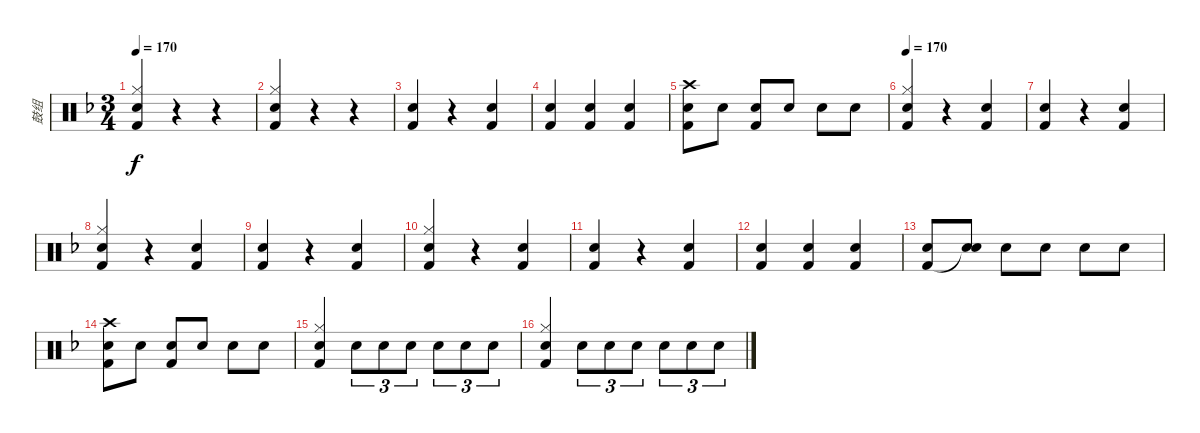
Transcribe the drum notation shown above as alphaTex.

\track ("鼓组" "鼓组") {instrument percussion}
\staff {score}
\articulation defaults
\ts (3 4)
\tempo 170
\clef neutral
\ks f
("Snare (hit) 2" "Hi-Hat (closed)" "Kick (hit) 2").4{dy f} r.4 r.4 |
("Snare (hit) 2" "Hi-Hat (closed)" "Kick (hit) 2").4 r.4 r.4 |
("Snare (hit) 2" "Kick (hit) 2").4 r.4 ("Snare (hit) 2" "Kick (hit) 2").4 |
("Snare (hit) 2" "Kick (hit) 2").4 ("Snare (hit) 2" "Kick (hit) 2").4 ("Snare (hit) 2" "Kick (hit) 2").4 |
("Snare (hit) 2" "Crash high (hit)" "Kick (hit) 2").8 "Snare (hit) 2".8 ("Snare (hit) 2" "Kick (hit) 2").8 "Snare (hit) 2".8 "Snare (hit) 2".8 "Snare (hit) 2".8 |
\tempo 170
("Snare (hit) 2" "Hi-Hat (closed)" "Kick (hit) 2").4 r.4 ("Snare (hit) 2" "Kick (hit) 2").4 |
("Snare (hit) 2" "Kick (hit) 2").4 r.4 ("Snare (hit) 2" "Kick (hit) 2").4 |
("Snare (hit) 2" "Hi-Hat (closed)" "Kick (hit) 2").4 r.4 ("Snare (hit) 2" "Kick (hit) 2").4 |
("Snare (hit) 2" "Kick (hit) 2").4 r.4 ("Snare (hit) 2" "Kick (hit) 2").4 |
("Snare (hit) 2" "Hi-Hat (closed)" "Kick (hit) 2").4 r.4 ("Snare (hit) 2" "Kick (hit) 2").4 |
("Snare (hit) 2" "Kick (hit) 2").4 r.4 ("Snare (hit) 2" "Kick (hit) 2").4 |
("Snare (hit) 2" "Kick (hit) 2").4 ("Snare (hit) 2" "Kick (hit) 2").4 ("Snare (hit) 2" "Kick (hit) 2").4 |
("Snare (hit) 2" "Kick (hit) 2").8 ("Snare (hit) 2" "Snare (hit)"{t}).8 "Snare (hit) 2".8 "Snare (hit) 2".8 "Snare (hit) 2".8 "Snare (hit) 2".8 |
("Snare (hit) 2" "Crash high (hit)" "Kick (hit) 2").8 "Snare (hit) 2".8 ("Snare (hit) 2" "Kick (hit) 2").8 "Snare (hit) 2".8 "Snare (hit) 2".8 "Snare (hit) 2".8 |
("Snare (hit) 2" "Hi-Hat (closed)" "Kick (hit) 2").4 "Snare (hit) 2".8{tu (3 2)} "Snare (hit) 2".8{tu (3 2)} "Snare (hit) 2".8{tu (3 2)} "Snare (hit) 2".8{tu (3 2)} "Snare (hit) 2".8{tu (3 2)} "Snare (hit) 2".8{tu (3 2)} |
("Snare (hit) 2" "Hi-Hat (closed)" "Kick (hit) 2").4 "Snare (hit) 2".8{tu (3 2)} "Snare (hit) 2".8{tu (3 2)} "Snare (hit) 2".8{tu (3 2)} "Snare (hit) 2".8{tu (3 2)} "Snare (hit) 2".8{tu (3 2)} "Snare (hit) 2".8{tu (3 2)}
